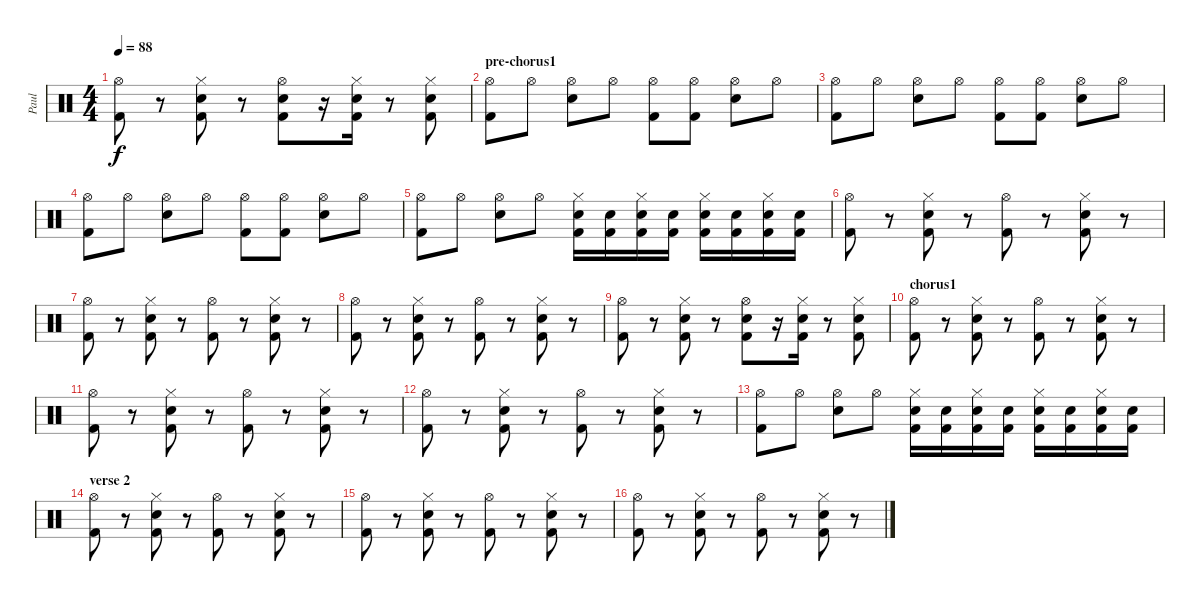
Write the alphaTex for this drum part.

\track ("Paul" "Paul") {instrument percussion}
\staff {score}
\articulation defaults
\ts (4 4)
\tempo 88
\clef neutral
\ks c
("Hi-Hat (open)" "Kick (hit) 2").8{dy f} r.8 ("Snare (hit) 2" "Hi-Hat (closed)" "Kick (hit) 2").8 r.8 ("Snare (hit) 2" "Hi-Hat (open)" "Kick (hit) 2").8 r.16 ("Snare (hit) 2" "Hi-Hat (closed)" "Kick (hit) 2").16 r.8 ("Snare (hit) 2" "Hi-Hat (closed)" "Kick (hit) 2").8 |
\section ("" "pre-chorus1")
("Hi-Hat (open)" "Kick (hit) 2").8 "Hi-Hat (open)".8 ("Snare (hit) 2" "Hi-Hat (open)").8 "Hi-Hat (open)".8 ("Hi-Hat (open)" "Kick (hit) 2").8 ("Hi-Hat (open)" "Kick (hit) 2").8 ("Snare (hit) 2" "Hi-Hat (open)").8 "Hi-Hat (open)".8 |
("Hi-Hat (open)" "Kick (hit) 2").8 "Hi-Hat (open)".8 ("Snare (hit) 2" "Hi-Hat (open)").8 "Hi-Hat (open)".8 ("Hi-Hat (open)" "Kick (hit) 2").8 ("Hi-Hat (open)" "Kick (hit) 2").8 ("Snare (hit) 2" "Hi-Hat (open)").8 "Hi-Hat (open)".8 |
("Hi-Hat (open)" "Kick (hit) 2").8 "Hi-Hat (open)".8 ("Snare (hit) 2" "Hi-Hat (open)").8 "Hi-Hat (open)".8 ("Hi-Hat (open)" "Kick (hit) 2").8 ("Hi-Hat (open)" "Kick (hit) 2").8 ("Snare (hit) 2" "Hi-Hat (open)").8 "Hi-Hat (open)".8 |
("Hi-Hat (open)" "Kick (hit) 2").8 "Hi-Hat (open)".8 ("Snare (hit) 2" "Hi-Hat (open)").8 "Hi-Hat (open)".8 ("Snare (hit) 2" "Hi-Hat (closed)" "Kick (hit) 2").16 ("Snare (hit) 2" "Kick (hit) 2").16 ("Snare (hit) 2" "Hi-Hat (closed)" "Kick (hit) 2").16 ("Snare (hit) 2" "Kick (hit) 2").16 ("Snare (hit) 2" "Hi-Hat (closed)" "Kick (hit) 2").16 ("Snare (hit) 2" "Kick (hit) 2").16 ("Snare (hit) 2" "Hi-Hat (closed)" "Kick (hit) 2").16 ("Snare (hit) 2" "Kick (hit) 2").16 |
("Hi-Hat (open)" "Kick (hit) 2").8 r.8 ("Snare (hit) 2" "Hi-Hat (closed)" "Kick (hit) 2").8 r.8 ("Hi-Hat (open)" "Kick (hit) 2").8 r.8 ("Snare (hit) 2" "Hi-Hat (closed)" "Kick (hit) 2").8 r.8 |
("Hi-Hat (open)" "Kick (hit) 2").8 r.8 ("Snare (hit) 2" "Hi-Hat (closed)" "Kick (hit) 2").8 r.8 ("Hi-Hat (open)" "Kick (hit) 2").8 r.8 ("Snare (hit) 2" "Hi-Hat (closed)" "Kick (hit) 2").8 r.8 |
("Hi-Hat (open)" "Kick (hit) 2").8 r.8 ("Snare (hit) 2" "Hi-Hat (closed)" "Kick (hit) 2").8 r.8 ("Hi-Hat (open)" "Kick (hit) 2").8 r.8 ("Snare (hit) 2" "Hi-Hat (closed)" "Kick (hit) 2").8 r.8 |
("Hi-Hat (open)" "Kick (hit) 2").8 r.8 ("Snare (hit) 2" "Hi-Hat (closed)" "Kick (hit) 2").8 r.8 ("Snare (hit) 2" "Hi-Hat (open)" "Kick (hit) 2").8 r.16 ("Snare (hit) 2" "Hi-Hat (closed)" "Kick (hit) 2").16 r.8 ("Snare (hit) 2" "Hi-Hat (closed)" "Kick (hit) 2").8 |
\section ("" "chorus1")
("Hi-Hat (open)" "Kick (hit) 2").8 r.8 ("Snare (hit) 2" "Hi-Hat (closed)" "Kick (hit) 2").8 r.8 ("Hi-Hat (open)" "Kick (hit) 2").8 r.8 ("Snare (hit) 2" "Hi-Hat (closed)" "Kick (hit) 2").8 r.8 |
("Hi-Hat (open)" "Kick (hit) 2").8 r.8 ("Snare (hit) 2" "Hi-Hat (closed)" "Kick (hit) 2").8 r.8 ("Hi-Hat (open)" "Kick (hit) 2").8 r.8 ("Snare (hit) 2" "Hi-Hat (closed)" "Kick (hit) 2").8 r.8 |
("Hi-Hat (open)" "Kick (hit) 2").8 r.8 ("Snare (hit) 2" "Hi-Hat (closed)" "Kick (hit) 2").8 r.8 ("Hi-Hat (open)" "Kick (hit) 2").8 r.8 ("Snare (hit) 2" "Hi-Hat (closed)" "Kick (hit) 2").8 r.8 |
("Hi-Hat (open)" "Kick (hit) 2").8 "Hi-Hat (open)".8 ("Snare (hit) 2" "Hi-Hat (open)").8 "Hi-Hat (open)".8 ("Snare (hit) 2" "Hi-Hat (closed)" "Kick (hit) 2").16 ("Snare (hit) 2" "Kick (hit) 2").16 ("Snare (hit) 2" "Hi-Hat (closed)" "Kick (hit) 2").16 ("Snare (hit) 2" "Kick (hit) 2").16 ("Snare (hit) 2" "Hi-Hat (closed)" "Kick (hit) 2").16 ("Snare (hit) 2" "Kick (hit) 2").16 ("Snare (hit) 2" "Hi-Hat (closed)" "Kick (hit) 2").16 ("Snare (hit) 2" "Kick (hit) 2").16 |
\section ("" "verse 2")
("Hi-Hat (open)" "Kick (hit) 2").8 r.8 ("Snare (hit) 2" "Hi-Hat (closed)" "Kick (hit) 2").8 r.8 ("Hi-Hat (open)" "Kick (hit) 2").8 r.8 ("Snare (hit) 2" "Hi-Hat (closed)" "Kick (hit) 2").8 r.8 |
("Hi-Hat (open)" "Kick (hit) 2").8 r.8 ("Snare (hit) 2" "Hi-Hat (closed)" "Kick (hit) 2").8 r.8 ("Hi-Hat (open)" "Kick (hit) 2").8 r.8 ("Snare (hit) 2" "Hi-Hat (closed)" "Kick (hit) 2").8 r.8 |
("Hi-Hat (open)" "Kick (hit) 2").8 r.8 ("Snare (hit) 2" "Hi-Hat (closed)" "Kick (hit) 2").8 r.8 ("Hi-Hat (open)" "Kick (hit) 2").8 r.8 ("Snare (hit) 2" "Hi-Hat (closed)" "Kick (hit) 2").8 r.8
